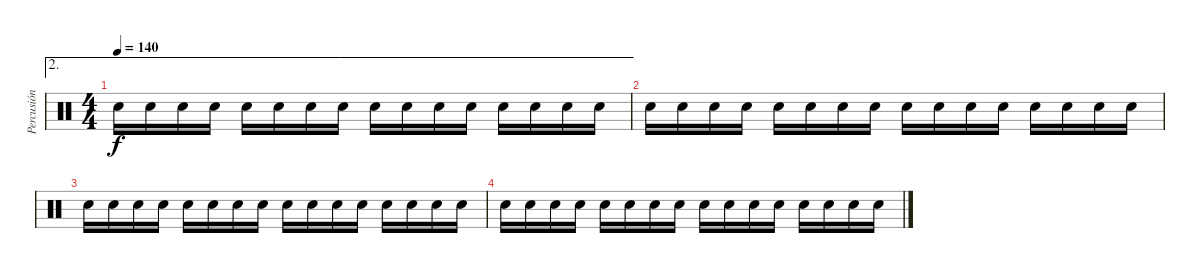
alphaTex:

\track ("Percusión" "Percusión") {instrument percussion}
\staff {score}
\articulation defaults
\ae 2
\ts (4 4)
\tempo 140
\clef neutral
\ks c "Electric Snare (hit)".16{dy f} "Electric Snare (hit)".16 "Electric Snare (hit)".16 "Electric Snare (hit)".16 "Electric Snare (hit)".16 "Electric Snare (hit)".16 "Electric Snare (hit)".16 "Electric Snare (hit)".16 "Electric Snare (hit)".16 "Electric Snare (hit)".16 "Electric Snare (hit)".16 "Electric Snare (hit)".16 "Electric Snare (hit)".16 "Electric Snare (hit)".16 "Electric Snare (hit)".16 "Electric Snare (hit)".16
|
"Electric Snare (hit)".16 "Electric Snare (hit)".16 "Electric Snare (hit)".16 "Electric Snare (hit)".16 "Electric Snare (hit)".16 "Electric Snare (hit)".16 "Electric Snare (hit)".16 "Electric Snare (hit)".16 "Electric Snare (hit)".16 "Electric Snare (hit)".16 "Electric Snare (hit)".16 "Electric Snare (hit)".16 "Electric Snare (hit)".16 "Electric Snare (hit)".16 "Electric Snare (hit)".16 "Electric Snare (hit)".16 |
"Electric Snare (hit)".16 "Electric Snare (hit)".16 "Electric Snare (hit)".16 "Electric Snare (hit)".16 "Electric Snare (hit)".16 "Electric Snare (hit)".16 "Electric Snare (hit)".16 "Electric Snare (hit)".16 "Electric Snare (hit)".16 "Electric Snare (hit)".16 "Electric Snare (hit)".16 "Electric Snare (hit)".16 "Electric Snare (hit)".16 "Electric Snare (hit)".16 "Electric Snare (hit)".16 "Electric Snare (hit)".16 |
"Electric Snare (hit)".16 "Electric Snare (hit)".16 "Electric Snare (hit)".16 "Electric Snare (hit)".16 "Electric Snare (hit)".16 "Electric Snare (hit)".16 "Electric Snare (hit)".16 "Electric Snare (hit)".16 "Electric Snare (hit)".16 "Electric Snare (hit)".16 "Electric Snare (hit)".16 "Electric Snare (hit)".16 "Electric Snare (hit)".16 "Electric Snare (hit)".16 "Electric Snare (hit)".16 "Electric Snare (hit)".16
